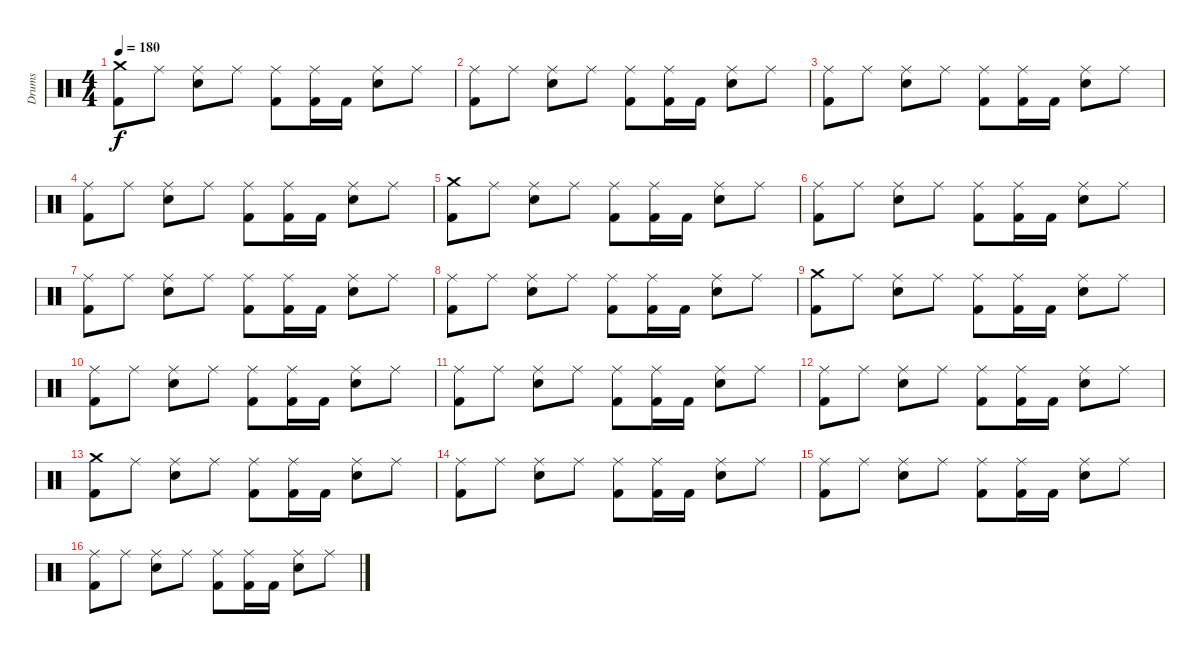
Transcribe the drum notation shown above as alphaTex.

\track ("Drums" "Drums") {instrument percussion}
\staff {score}
\articulation defaults
\ts (4 4)
\tempo 180
\clef neutral
\ks c
("Crash medium (hit)" "Kick (hit) 2").8{dy f} "Ride (middle)".8 ("Ride (middle)" "Electric Snare (hit)").8 "Ride (middle)".8 ("Ride (middle)" "Kick (hit) 2").8 ("Ride (middle)" "Kick (hit) 2").16 "Kick (hit) 2".16 ("Ride (middle)" "Electric Snare (hit)").8 "Ride (middle)".8 |
("Ride (middle)" "Kick (hit) 2").8 "Ride (middle)".8 ("Ride (middle)" "Electric Snare (hit)").8 "Ride (middle)".8 ("Ride (middle)" "Kick (hit) 2").8 ("Ride (middle)" "Kick (hit) 2").16 "Kick (hit) 2".16 ("Ride (middle)" "Electric Snare (hit)").8 "Ride (middle)".8 |
("Ride (middle)" "Kick (hit) 2").8 "Ride (middle)".8 ("Ride (middle)" "Electric Snare (hit)").8 "Ride (middle)".8 ("Ride (middle)" "Kick (hit) 2").8 ("Ride (middle)" "Kick (hit) 2").16 "Kick (hit) 2".16 ("Ride (middle)" "Electric Snare (hit)").8 "Ride (middle)".8 |
("Ride (middle)" "Kick (hit) 2").8 "Ride (middle)".8 ("Ride (middle)" "Electric Snare (hit)").8 "Ride (middle)".8 ("Ride (middle)" "Kick (hit) 2").8 ("Ride (middle)" "Kick (hit) 2").16 "Kick (hit) 2".16 ("Ride (middle)" "Electric Snare (hit)").8 "Ride (middle)".8 |
("Crash medium (hit)" "Kick (hit) 2").8 "Ride (middle)".8 ("Ride (middle)" "Electric Snare (hit)").8 "Ride (middle)".8 ("Ride (middle)" "Kick (hit) 2").8 ("Ride (middle)" "Kick (hit) 2").16 "Kick (hit) 2".16 ("Ride (middle)" "Electric Snare (hit)").8 "Ride (middle)".8 |
("Ride (middle)" "Kick (hit) 2").8 "Ride (middle)".8 ("Ride (middle)" "Electric Snare (hit)").8 "Ride (middle)".8 ("Ride (middle)" "Kick (hit) 2").8 ("Ride (middle)" "Kick (hit) 2").16 "Kick (hit) 2".16 ("Ride (middle)" "Electric Snare (hit)").8 "Ride (middle)".8 |
("Ride (middle)" "Kick (hit) 2").8 "Ride (middle)".8 ("Ride (middle)" "Electric Snare (hit)").8 "Ride (middle)".8 ("Ride (middle)" "Kick (hit) 2").8 ("Ride (middle)" "Kick (hit) 2").16 "Kick (hit) 2".16 ("Ride (middle)" "Electric Snare (hit)").8 "Ride (middle)".8 |
("Ride (middle)" "Kick (hit) 2").8 "Ride (middle)".8 ("Ride (middle)" "Electric Snare (hit)").8 "Ride (middle)".8 ("Ride (middle)" "Kick (hit) 2").8 ("Ride (middle)" "Kick (hit) 2").16 "Kick (hit) 2".16 ("Ride (middle)" "Electric Snare (hit)").8 "Ride (middle)".8 |
("Crash medium (hit)" "Kick (hit) 2").8 "Ride (middle)".8 ("Ride (middle)" "Electric Snare (hit)").8 "Ride (middle)".8 ("Ride (middle)" "Kick (hit) 2").8 ("Ride (middle)" "Kick (hit) 2").16 "Kick (hit) 2".16 ("Ride (middle)" "Electric Snare (hit)").8 "Ride (middle)".8 |
("Ride (middle)" "Kick (hit) 2").8 "Ride (middle)".8 ("Ride (middle)" "Electric Snare (hit)").8 "Ride (middle)".8 ("Ride (middle)" "Kick (hit) 2").8 ("Ride (middle)" "Kick (hit) 2").16 "Kick (hit) 2".16 ("Ride (middle)" "Electric Snare (hit)").8 "Ride (middle)".8 |
("Ride (middle)" "Kick (hit) 2").8 "Ride (middle)".8 ("Ride (middle)" "Electric Snare (hit)").8 "Ride (middle)".8 ("Ride (middle)" "Kick (hit) 2").8 ("Ride (middle)" "Kick (hit) 2").16 "Kick (hit) 2".16 ("Ride (middle)" "Electric Snare (hit)").8 "Ride (middle)".8 |
("Ride (middle)" "Kick (hit) 2").8 "Ride (middle)".8 ("Ride (middle)" "Electric Snare (hit)").8 "Ride (middle)".8 ("Ride (middle)" "Kick (hit) 2").8 ("Ride (middle)" "Kick (hit) 2").16 "Kick (hit) 2".16 ("Ride (middle)" "Electric Snare (hit)").8 "Ride (middle)".8 |
("Crash medium (hit)" "Kick (hit) 2").8 "Ride (middle)".8 ("Ride (middle)" "Electric Snare (hit)").8 "Ride (middle)".8 ("Ride (middle)" "Kick (hit) 2").8 ("Ride (middle)" "Kick (hit) 2").16 "Kick (hit) 2".16 ("Ride (middle)" "Electric Snare (hit)").8 "Ride (middle)".8 |
("Ride (middle)" "Kick (hit) 2").8 "Ride (middle)".8 ("Ride (middle)" "Electric Snare (hit)").8 "Ride (middle)".8 ("Ride (middle)" "Kick (hit) 2").8 ("Ride (middle)" "Kick (hit) 2").16 "Kick (hit) 2".16 ("Ride (middle)" "Electric Snare (hit)").8 "Ride (middle)".8 |
("Ride (middle)" "Kick (hit) 2").8 "Ride (middle)".8 ("Ride (middle)" "Electric Snare (hit)").8 "Ride (middle)".8 ("Ride (middle)" "Kick (hit) 2").8 ("Ride (middle)" "Kick (hit) 2").16 "Kick (hit) 2".16 ("Ride (middle)" "Electric Snare (hit)").8 "Ride (middle)".8 |
("Ride (middle)" "Kick (hit) 2").8 "Ride (middle)".8 ("Ride (middle)" "Electric Snare (hit)").8 "Ride (middle)".8 ("Ride (middle)" "Kick (hit) 2").8 ("Ride (middle)" "Kick (hit) 2").16 "Kick (hit) 2".16 ("Ride (middle)" "Electric Snare (hit)").8 "Ride (middle)".8
